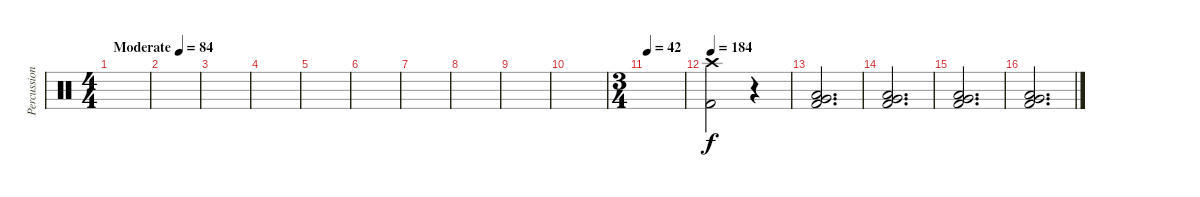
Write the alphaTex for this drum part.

\track ("Percussions" "Percussion") {instrument percussion}
\staff {score}
\articulation defaults
\ts (4 4)
\tempo (84 "Moderate")
\clef neutral
\ks c
|
|
|
|
|
|
|
|
|
|
\ts (3 4)
\tempo 42
|
\tempo 184
("Crash high (hit)" "Kick (hit) 2").2 r.4 |
("Low Floor Tom (hit)" "Very Low Tom (hit)" "Kick (hit) 2").2{d} |
("Low Floor Tom (hit)" "Very Low Tom (hit)" "Kick (hit) 2").2{d} |
("Low Floor Tom (hit)" "Very Low Tom (hit)" "Kick (hit) 2").2{d} |
("Low Floor Tom (hit)" "Very Low Tom (hit)" "Kick (hit) 2").2{d}
